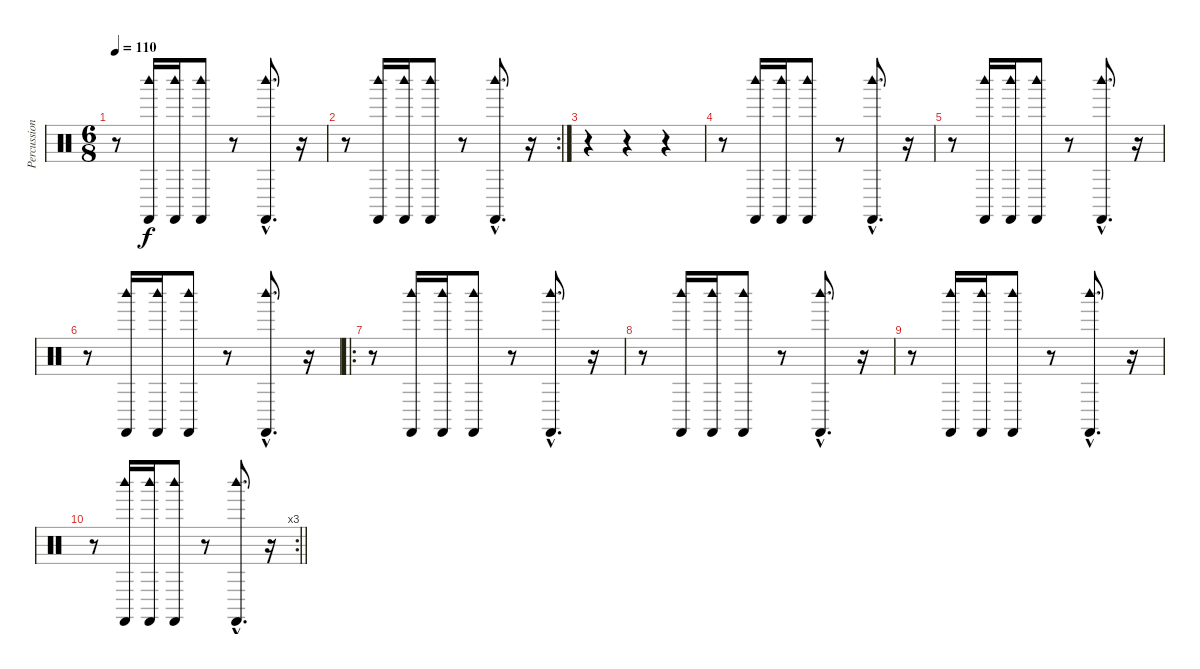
\track ("Percussion" "Percussion") {instrument percussion}
\staff {score}
\articulation defaults
\ts (6 8)
\tempo 110
\clef neutral
\ks c
r.8{dy f} ("Woodblock high (hit)" "Castanets (hit)").16 ("Woodblock high (hit)" "Castanets (hit)").16 ("Woodblock high (hit)" "Castanets (hit)").8 r.8 ("Woodblock high (hit)"{hac} "Castanets (hit)"{hac}).8{d} r.16 |
\rc 2
r.8 ("Woodblock high (hit)" "Castanets (hit)").16 ("Woodblock high (hit)" "Castanets (hit)").16 ("Woodblock high (hit)" "Castanets (hit)").8 r.8 ("Woodblock high (hit)"{hac} "Castanets (hit)"{hac}).8{d} r.16 |
r.4 r.4 r.4 |
r.8 ("Woodblock high (hit)" "Castanets (hit)").16 ("Woodblock high (hit)" "Castanets (hit)").16 ("Woodblock high (hit)" "Castanets (hit)").8 r.8 ("Woodblock high (hit)"{hac} "Castanets (hit)"{hac}).8{d} r.16 |
r.8 ("Woodblock high (hit)" "Castanets (hit)").16 ("Woodblock high (hit)" "Castanets (hit)").16 ("Woodblock high (hit)" "Castanets (hit)").8 r.8 ("Woodblock high (hit)"{hac} "Castanets (hit)"{hac}).8{d} r.16 |
r.8 ("Woodblock high (hit)" "Castanets (hit)").16 ("Woodblock high (hit)" "Castanets (hit)").16 ("Woodblock high (hit)" "Castanets (hit)").8 r.8 ("Woodblock high (hit)"{hac} "Castanets (hit)"{hac}).8{d} r.16 |
\ro
r.8 ("Woodblock high (hit)" "Castanets (hit)").16 ("Woodblock high (hit)" "Castanets (hit)").16 ("Woodblock high (hit)" "Castanets (hit)").8 r.8 ("Woodblock high (hit)"{hac} "Castanets (hit)"{hac}).8{d} r.16 |
r.8 ("Woodblock high (hit)" "Castanets (hit)").16 ("Woodblock high (hit)" "Castanets (hit)").16 ("Woodblock high (hit)" "Castanets (hit)").8 r.8 ("Woodblock high (hit)"{hac} "Castanets (hit)"{hac}).8{d} r.16 |
r.8 ("Woodblock high (hit)" "Castanets (hit)").16 ("Woodblock high (hit)" "Castanets (hit)").16 ("Woodblock high (hit)" "Castanets (hit)").8 r.8 ("Woodblock high (hit)"{hac} "Castanets (hit)"{hac}).8{d} r.16 |
\rc 3
\barLineRight lightlight
r.8 ("Woodblock high (hit)" "Castanets (hit)").16 ("Woodblock high (hit)" "Castanets (hit)").16 ("Woodblock high (hit)" "Castanets (hit)").8 r.8 ("Woodblock high (hit)"{hac} "Castanets (hit)"{hac}).8{d} r.16
